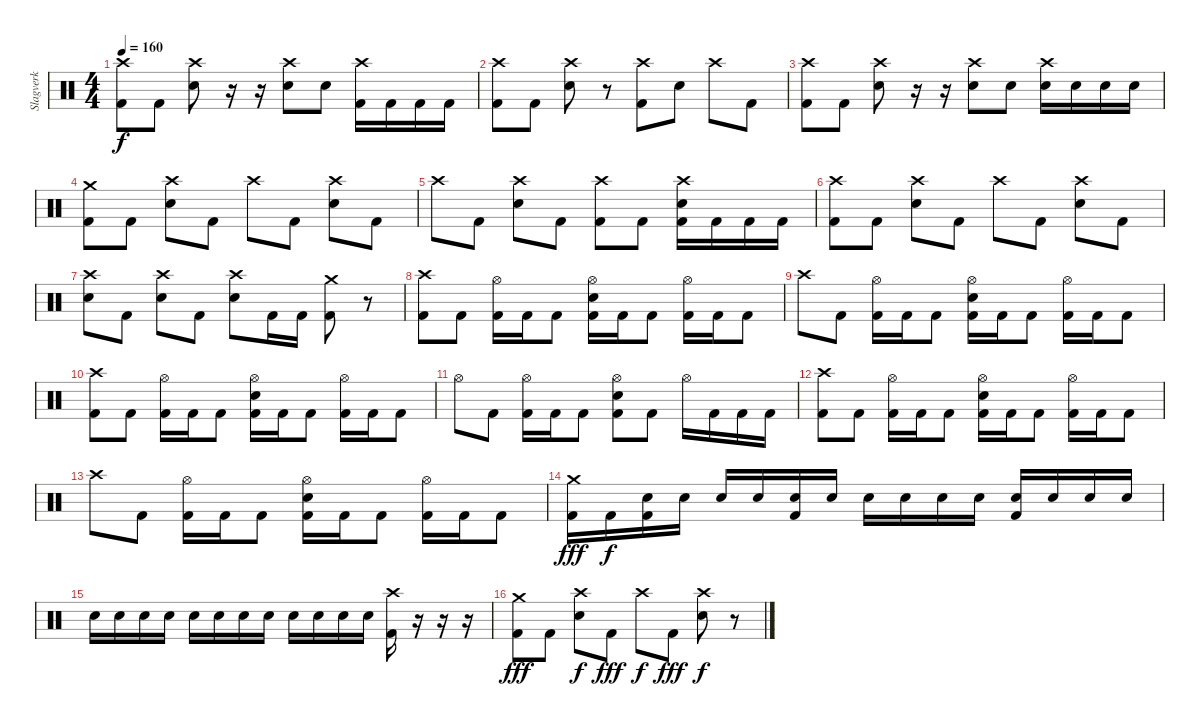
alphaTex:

\track ("Slagverk" "Slagverk") {instrument percussion}
\staff {score}
\articulation defaults
\ts (4 4)
\tempo 160
\clef neutral
\ks c
("Crash high (hit)" "Kick (hit) 2").8{dy f} "Kick (hit) 2".8 ("Crash high (hit)" "Snare (hit) 2").8 r.16 r.16 ("Crash high (hit)" "Snare (hit) 2").8 "Snare (hit) 2".8 ("Crash high (hit)" "Kick (hit) 2").16 "Kick (hit) 2".16 "Kick (hit) 2".16 "Kick (hit) 2".16 |
("Crash high (hit)" "Kick (hit) 2").8 "Kick (hit) 2".8 ("Crash high (hit)" "Snare (hit) 2").8 r.8 ("Crash high (hit)" "Kick (hit) 2").8 "Snare (hit) 2".8 "Crash high (hit)".8 "Kick (hit) 2".8 |
("Crash high (hit)" "Kick (hit) 2").8 "Kick (hit) 2".8 ("Crash high (hit)" "Snare (hit) 2").8 r.16 r.16 ("Crash high (hit)" "Snare (hit) 2").8 "Snare (hit) 2".8 ("Crash high (hit)" "Snare (hit) 2").16 "Snare (hit) 2".16 "Snare (hit) 2".16 "Snare (hit) 2".16 |
("Crash medium (hit)" "Kick (hit) 2").8 "Kick (hit) 2".8 ("Crash high (hit)" "Snare (hit) 2").8 "Kick (hit) 2".8 "Crash high (hit)".8 "Kick (hit) 2".8 ("Crash high (hit)" "Snare (hit) 2").8 "Kick (hit) 2".8 |
"Crash high (hit)".8 "Kick (hit) 2".8 ("Crash high (hit)" "Snare (hit) 2").8 "Kick (hit) 2".8 ("Crash high (hit)" "Kick (hit) 2").8 "Kick (hit) 2".8 ("Crash high (hit)" "Snare (hit) 2" "Kick (hit) 2").16 "Kick (hit) 2".16 "Kick (hit) 2".16 "Kick (hit) 2".16 |
("Crash high (hit)" "Kick (hit) 2").8 "Kick (hit) 2".8 ("Crash high (hit)" "Snare (hit) 2").8 "Kick (hit) 2".8 "Crash high (hit)".8 "Kick (hit) 2".8 ("Crash high (hit)" "Snare (hit) 2").8 "Kick (hit) 2".8 |
("Crash high (hit)" "Snare (hit) 2").8 "Kick (hit) 2".8 ("Crash high (hit)" "Snare (hit) 2").8 "Kick (hit) 2".8 ("Crash high (hit)" "Snare (hit) 2").8 "Kick (hit) 2".16 "Kick (hit) 2".16 ("Crash medium (hit)" "Kick (hit) 2").8 r.8 |
("Crash high (hit)" "Kick (hit) 2").8 "Kick (hit) 2".8 ("Hi-Hat (open)" "Kick (hit) 2").16 "Kick (hit) 2".16 "Kick (hit) 2".8 ("Hi-Hat (open)" "Snare (hit) 2" "Kick (hit) 2").16 "Kick (hit) 2".16 "Kick (hit) 2".8 ("Hi-Hat (open)" "Kick (hit) 2").16 "Kick (hit) 2".16 "Kick (hit) 2".8 |
"Crash high (hit)".8 "Kick (hit) 2".8 ("Hi-Hat (open)" "Kick (hit) 2").16 "Kick (hit) 2".16 "Kick (hit) 2".8 ("Hi-Hat (open)" "Snare (hit) 2" "Kick (hit) 2").16 "Kick (hit) 2".16 "Kick (hit) 2".8 ("Hi-Hat (open)" "Kick (hit) 2").16 "Kick (hit) 2".16 "Kick (hit) 2".8 |
("Crash high (hit)" "Kick (hit) 2").8 "Kick (hit) 2".8 ("Hi-Hat (open)" "Kick (hit) 2").16 "Kick (hit) 2".16 "Kick (hit) 2".8 ("Hi-Hat (open)" "Snare (hit) 2" "Kick (hit) 2").16 "Kick (hit) 2".16 "Kick (hit) 2".8 ("Hi-Hat (open)" "Kick (hit) 2").16 "Kick (hit) 2".16 "Kick (hit) 2".8 |
"Hi-Hat (open)".8 "Kick (hit) 2".8 ("Hi-Hat (open)" "Kick (hit) 2").16 "Kick (hit) 2".16 "Kick (hit) 2".8 ("Hi-Hat (open)" "Snare (hit) 2" "Kick (hit) 2").8 "Kick (hit) 2".8 "Hi-Hat (open)".16 "Kick (hit) 2".16 "Kick (hit) 2".16 "Kick (hit) 2".16 |
("Crash high (hit)" "Kick (hit) 2").8 "Kick (hit) 2".8 ("Hi-Hat (open)" "Kick (hit) 2").16 "Kick (hit) 2".16 "Kick (hit) 2".8 ("Hi-Hat (open)" "Snare (hit) 2" "Kick (hit) 2").16 "Kick (hit) 2".16 "Kick (hit) 2".8 ("Hi-Hat (open)" "Kick (hit) 2").16 "Kick (hit) 2".16 "Kick (hit) 2".8 |
"Crash high (hit)".8 "Kick (hit) 2".8 ("Hi-Hat (open)" "Kick (hit) 2").16 "Kick (hit) 2".16 "Kick (hit) 2".8 ("Hi-Hat (open)" "Snare (hit) 2" "Kick (hit) 2").16 "Kick (hit) 2".16 "Kick (hit) 2".8 ("Hi-Hat (open)" "Kick (hit) 2").16 "Kick (hit) 2".16 "Kick (hit) 2".8 |
("Crash medium (hit)" "Kick (hit) 2").16{dy fff} "Kick (hit) 2".16{dy f} ("Snare (hit) 2" "Kick (hit) 2").16 "Snare (hit) 2".16 "Snare (hit) 2".16 "Snare (hit) 2".16 ("Snare (hit) 2" "Kick (hit) 2").16 "Snare (hit) 2".16 "Snare (hit) 2".16 "Snare (hit) 2".16 "Snare (hit) 2".16 "Snare (hit) 2".16 ("Snare (hit) 2" "Kick (hit) 2").16 "Snare (hit) 2".16 "Snare (hit) 2".16 "Snare (hit) 2".16 |
"Snare (hit) 2".16 "Snare (hit) 2".16 "Snare (hit) 2".16 "Snare (hit) 2".16 "Snare (hit) 2".16 "Snare (hit) 2".16 "Snare (hit) 2".16 "Snare (hit) 2".16 "Snare (hit) 2".16 "Snare (hit) 2".16 "Snare (hit) 2".16 "Snare (hit) 2".16 ("Crash high (hit)" "Kick (hit) 2").16 r.16 r.16 r.16 |
("Crash medium (hit)" "Kick (hit) 2").8{dy fff} "Kick (hit) 2".8 ("Crash high (hit)" "Snare (hit) 2").8{dy f} "Kick (hit) 2".8{dy fff} "Crash high (hit)".8{dy f} "Kick (hit) 2".8{dy fff} ("Crash high (hit)" "Snare (hit) 2").8{dy f} r.8
